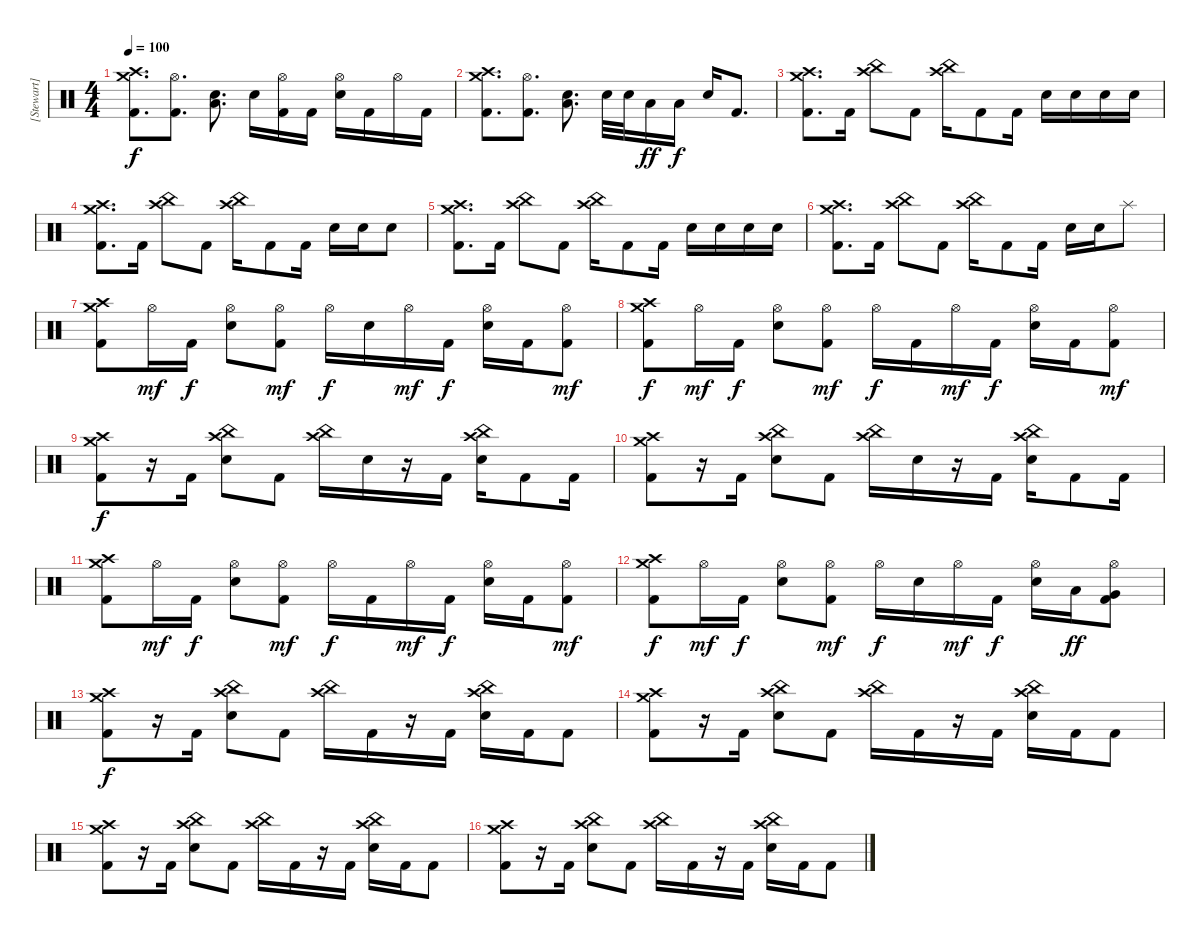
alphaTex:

\track ("[Stewart]" "[Stewart]") {instrument percussion}
\staff {score}
\articulation defaults
\ts (4 4)
\tempo 100
\clef neutral
\ks c
("Crash high (hit)" "Crash medium (hit)" "Kick (hit) 2").8{d dy f} ("Hi-Hat (open)" "Kick (hit) 2").8{d} ("Electric Snare (hit)" "Low Tom (hit)").8{d} "Electric Snare (hit)".16 ("Hi-Hat (open)" "Kick (hit) 2").16 "Kick (hit) 2".16 ("Hi-Hat (open)" "Electric Snare (hit)").16 "Kick (hit) 2".16 "Hi-Hat (open)".16 "Kick (hit) 2".16 |
("Crash high (hit)" "Crash medium (hit)" "Kick (hit) 2").8{d} ("Hi-Hat (open)" "Kick (hit) 2").8{d} ("Electric Snare (hit)" "Low Tom (hit)").8{d} "Electric Snare (hit)".32 "Electric Snare (hit)".32 "Low Tom (hit)".16{dy ff} "Low Tom (hit)".16{dy f} "Electric Snare (hit)".16 "Kick (hit) 2".8{d} |
("Crash high (hit)" "Crash medium (hit)" "Kick (hit) 2").8{d} "Kick (hit) 2".16 ("Crash high (hit)" "China (hit)").8 "Kick (hit) 2".8 ("Crash high (hit)" "China (hit)").16 "Kick (hit) 2".8 "Kick (hit) 2".16 "Electric Snare (hit)".16 "Electric Snare (hit)".16 "Electric Snare (hit)".16 "Electric Snare (hit)".16 |
("Crash high (hit)" "Crash medium (hit)" "Kick (hit) 2").8{d} "Kick (hit) 2".16 ("Crash high (hit)" "China (hit)").8 "Kick (hit) 2".8 ("Crash high (hit)" "China (hit)").16 "Kick (hit) 2".8 "Kick (hit) 2".16 "Electric Snare (hit)".16 "Electric Snare (hit)".16 "Electric Snare (hit)".8 |
("Crash high (hit)" "Crash medium (hit)" "Kick (hit) 2").8{d} "Kick (hit) 2".16 ("Crash high (hit)" "China (hit)").8 "Kick (hit) 2".8 ("Crash high (hit)" "China (hit)").16 "Kick (hit) 2".8 "Kick (hit) 2".16 "Electric Snare (hit)".16 "Electric Snare (hit)".16 "Electric Snare (hit)".16 "Electric Snare (hit)".16 |
("Crash high (hit)" "Crash medium (hit)" "Kick (hit) 2").8{d} "Kick (hit) 2".16 ("Crash high (hit)" "China (hit)").8 "Kick (hit) 2".8 ("Crash high (hit)" "China (hit)").16 "Kick (hit) 2".8 "Kick (hit) 2".16 "Electric Snare (hit)".16 "Electric Snare (hit)".16 "Splash (hit)".8 |
("Crash high (hit)" "Crash medium (hit)" "Kick (hit) 2").8 "Hi-Hat (open)".16{dy mf} "Kick (hit) 2".16{dy f} ("Hi-Hat (open)" "Electric Snare (hit)").8 ("Hi-Hat (open)" "Kick (hit) 2").8{dy mf} "Hi-Hat (open)".16{dy f} "Electric Snare (hit)".16 "Hi-Hat (open)".16{dy mf} "Kick (hit) 2".16{dy f} ("Hi-Hat (open)" "Electric Snare (hit)").16 "Kick (hit) 2".16 ("Hi-Hat (open)" "Kick (hit) 2").8{dy mf} |
("Crash high (hit)" "Crash medium (hit)" "Kick (hit) 2").8{dy f} "Hi-Hat (open)".16{dy mf} "Kick (hit) 2".16{dy f} ("Hi-Hat (open)" "Electric Snare (hit)").8 ("Hi-Hat (open)" "Kick (hit) 2").8{dy mf} "Hi-Hat (open)".16{dy f} "Kick (hit) 2".16 "Hi-Hat (open)".16{dy mf} "Kick (hit) 2".16{dy f} ("Hi-Hat (open)" "Electric Snare (hit)").16 "Kick (hit) 2".16 ("Hi-Hat (open)" "Kick (hit) 2").8{dy mf} |
("Crash high (hit)" "Crash medium (hit)" "Kick (hit) 2").8{dy f} r.16 "Kick (hit) 2".16 ("Crash high (hit)" "China (hit)" "Electric Snare (hit)").8 "Kick (hit) 2".8 ("Crash high (hit)" "China (hit)").16 "Electric Snare (hit)".16 r.16 "Kick (hit) 2".16 ("Crash high (hit)" "China (hit)" "Electric Snare (hit)").16 "Kick (hit) 2".8 "Kick (hit) 2".16 |
("Crash high (hit)" "Crash medium (hit)" "Kick (hit) 2").8 r.16 "Kick (hit) 2".16 ("Crash high (hit)" "China (hit)" "Electric Snare (hit)").8 "Kick (hit) 2".8 ("Crash high (hit)" "China (hit)").16 "Electric Snare (hit)".16 r.16 "Kick (hit) 2".16 ("Crash high (hit)" "China (hit)" "Electric Snare (hit)").16 "Kick (hit) 2".8 "Kick (hit) 2".16 |
("Crash high (hit)" "Crash medium (hit)" "Kick (hit) 2").8 "Hi-Hat (open)".16{dy mf} "Kick (hit) 2".16{dy f} ("Hi-Hat (open)" "Electric Snare (hit)").8 ("Hi-Hat (open)" "Kick (hit) 2").8{dy mf} "Hi-Hat (open)".16{dy f} "Kick (hit) 2".16 "Hi-Hat (open)".16{dy mf} "Kick (hit) 2".16{dy f} ("Hi-Hat (open)" "Electric Snare (hit)").16 "Kick (hit) 2".16 ("Hi-Hat (open)" "Kick (hit) 2").8{dy mf} |
("Crash high (hit)" "Crash medium (hit)" "Kick (hit) 2").8{dy f} "Hi-Hat (open)".16{dy mf} "Kick (hit) 2".16{dy f} ("Hi-Hat (open)" "Electric Snare (hit)").8 ("Hi-Hat (open)" "Kick (hit) 2").8{dy mf} "Hi-Hat (open)".16{dy f} "Electric Snare (hit)".16 "Hi-Hat (open)".16{dy mf} "Kick (hit) 2".16{dy f} ("Hi-Hat (open)" "Electric Snare (hit)").16 "Low Tom (hit)".16{dy ff} ("Hi-Hat (open)" "Very Low Tom (hit)" "Kick (hit) 2").8 |
("Crash high (hit)" "Crash medium (hit)" "Kick (hit) 2").8{dy f} r.16 "Kick (hit) 2".16 ("Crash high (hit)" "China (hit)" "Electric Snare (hit)").8 "Kick (hit) 2".8 ("Crash high (hit)" "China (hit)").16 "Kick (hit) 2".16 r.16 "Kick (hit) 2".16 ("Crash high (hit)" "China (hit)" "Electric Snare (hit)").16 "Kick (hit) 2".16 "Kick (hit) 2".8 |
("Crash high (hit)" "Crash medium (hit)" "Kick (hit) 2").8 r.16 "Kick (hit) 2".16 ("Crash high (hit)" "China (hit)" "Electric Snare (hit)").8 "Kick (hit) 2".8 ("Crash high (hit)" "China (hit)").16 "Kick (hit) 2".16 r.16 "Kick (hit) 2".16 ("Crash high (hit)" "China (hit)" "Electric Snare (hit)").16 "Kick (hit) 2".16 "Kick (hit) 2".8 |
("Crash high (hit)" "Crash medium (hit)" "Kick (hit) 2").8 r.16 "Kick (hit) 2".16 ("Crash high (hit)" "China (hit)" "Electric Snare (hit)").8 "Kick (hit) 2".8 ("Crash high (hit)" "China (hit)").16 "Kick (hit) 2".16 r.16 "Kick (hit) 2".16 ("Crash high (hit)" "China (hit)" "Electric Snare (hit)").16 "Kick (hit) 2".16 "Kick (hit) 2".8 |
("Crash high (hit)" "Crash medium (hit)" "Kick (hit) 2").8 r.16 "Kick (hit) 2".16 ("Crash high (hit)" "China (hit)" "Electric Snare (hit)").8 "Kick (hit) 2".8 ("Crash high (hit)" "China (hit)").16 "Kick (hit) 2".16 r.16 "Kick (hit) 2".16 ("Crash high (hit)" "China (hit)" "Electric Snare (hit)").16 "Kick (hit) 2".16 "Kick (hit) 2".8
